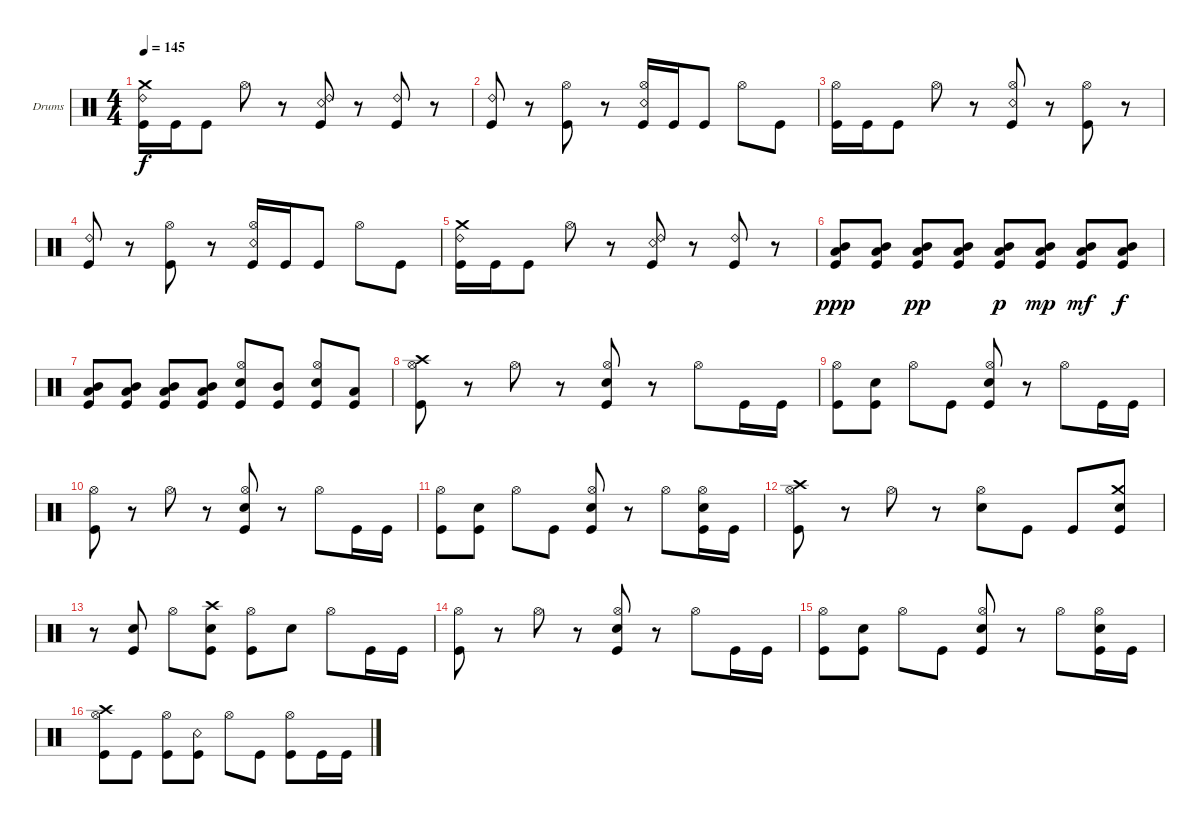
\bracketExtendMode groupsimilarinstruments
\firstSystemTrackNameOrientation horizontal
\otherSystemsTrackNameOrientation horizontal
\track ("Kaleb - Drums" "Drums") {instrument percussion}
\staff {score}
\articulation defaults
\ts (4 4)
\tempo 145
\clef neutral
\ks c
("Kick (hit)" "Ride (bell) 2" "Crash medium (hit)").16{dy f} "Kick (hit)".16 "Kick (hit)".8 "Hi-Hat (open)".8 r.8 ("Kick (hit)" "Ride (bell) 2" "Snare (rim shot)").8 r.8 ("Kick (hit)" "Ride (bell) 2").8 r.8 |
("Kick (hit)" "Ride (bell) 2").8 r.8 ("Kick (hit)" "Hi-Hat (open)").8 r.8 ("Kick (hit)" "Snare (rim shot)" "Hi-Hat (open)").16 "Kick (hit)".16 "Kick (hit)".8 "Hi-Hat (open)".8 "Kick (hit)".8 |
("Kick (hit)" "Hi-Hat (open)").16 "Kick (hit)".16 "Kick (hit)".8 "Hi-Hat (open)".8 r.8 ("Kick (hit)" "Snare (rim shot)" "Hi-Hat (open)").8 r.8 ("Kick (hit)" "Hi-Hat (open)").8 r.8 |
("Kick (hit)" "Ride (bell) 2").8 r.8 ("Kick (hit)" "Hi-Hat (open)").8 r.8 ("Kick (hit)" "Snare (rim shot)" "Hi-Hat (open)").16 "Kick (hit)".16 "Kick (hit)".8 "Hi-Hat (open)".8 "Kick (hit)".8 |
("Kick (hit)" "Ride (bell) 2" "Crash medium (hit)").16 "Kick (hit)".16 "Kick (hit)".8 "Hi-Hat (open)".8 r.8 ("Kick (hit)" "Ride (bell) 2" "Snare (rim shot)").8 r.8 ("Kick (hit)" "Ride (bell) 2").8 r.8 |
("Kick (hit)" "Low Tom (hit)" "Mid Tom (hit)").8{dy ppp} ("Kick (hit)" "Low Tom (hit)" "Mid Tom (hit)").8 ("Kick (hit)" "Low Tom (hit)" "Mid Tom (hit)").8{dy pp} ("Kick (hit)" "Low Tom (hit)" "Mid Tom (hit)").8 ("Kick (hit)" "Low Tom (hit)" "Mid Tom (hit)").8{dy p} ("Kick (hit)" "Low Tom (hit)" "Mid Tom (hit)").8{dy mp} ("Kick (hit)" "Low Tom (hit)" "Mid Tom (hit)").8{dy mf} ("Kick (hit)" "Low Tom (hit)" "Mid Tom (hit)").8{dy f} |
("Kick (hit)" "Low Tom (hit)" "Mid Tom (hit)").8 ("Kick (hit)" "Low Tom (hit)" "Mid Tom (hit)").8 ("Kick (hit)" "Low Tom (hit)" "Mid Tom (hit)").8 ("Kick (hit)" "Low Tom (hit)" "Mid Tom (hit)").8 ("Kick (hit)" "Hi-Hat (open)" "Snare (hit) 2").8 ("Kick (hit)" "Mid Tom (hit)").8 ("Kick (hit)" "Hi-Hat (open)" "Snare (hit) 2").8 ("Kick (hit)" "Low Tom (hit)").8 |
("Kick (hit)" "Hi-Hat (open)" "Crash high (hit)").8 r.8 "Hi-Hat (open)".8 r.8 ("Kick (hit)" "Hi-Hat (open)" "Snare (hit) 2").8 r.8 "Hi-Hat (open)".8 "Kick (hit)".16 "Kick (hit)".16 |
("Kick (hit)" "Hi-Hat (open)").8 ("Kick (hit)" "Snare (hit) 2").8 "Hi-Hat (open)".8 "Kick (hit)".8 ("Kick (hit)" "Hi-Hat (open)" "Snare (hit) 2").8 r.8 "Hi-Hat (open)".8 "Kick (hit)".16 "Kick (hit)".16 |
("Kick (hit)" "Hi-Hat (open)").8 r.8 "Hi-Hat (open)".8 r.8 ("Kick (hit)" "Hi-Hat (open)" "Snare (hit) 2").8 r.8 "Hi-Hat (open)".8 "Kick (hit)".16 "Kick (hit)".16 |
("Kick (hit)" "Hi-Hat (open)").8 ("Kick (hit)" "Snare (hit) 2").8 "Hi-Hat (open)".8 "Kick (hit)".8 ("Kick (hit)" "Hi-Hat (open)" "Snare (hit) 2").8 r.8 "Hi-Hat (open)".8 ("Kick (hit)" "Hi-Hat (open)" "Snare (hit) 2").16 "Kick (hit)".16 |
("Kick (hit)" "Hi-Hat (open)" "Crash high (hit)").8 r.8 "Hi-Hat (open)".8 r.8 ("Snare (hit) 2" "Hi-Hat (open)").8 "Kick (hit)".8 "Kick (hit)".8 ("Snare (hit) 2" "Kick (hit)" "Crash medium (hit)").8 |
r.8 ("Kick (hit)" "Snare (hit) 2").8 "Hi-Hat (open)".8 ("Kick (hit)" "Snare (hit) 2" "Crash high (hit)").8 ("Kick (hit)" "Hi-Hat (open)").8 "Snare (hit) 2".8 "Hi-Hat (open)".8 "Kick (hit)".16 "Kick (hit)".16 |
("Kick (hit)" "Hi-Hat (open)").8 r.8 "Hi-Hat (open)".8 r.8 ("Kick (hit)" "Hi-Hat (open)" "Snare (hit) 2").8 r.8 "Hi-Hat (open)".8 "Kick (hit)".16 "Kick (hit)".16 |
("Kick (hit)" "Hi-Hat (open)").8 ("Kick (hit)" "Snare (hit) 2").8 "Hi-Hat (open)".8 "Kick (hit)".8 ("Kick (hit)" "Hi-Hat (open)" "Snare (hit) 2").8 r.8 "Hi-Hat (open)".8 ("Kick (hit)" "Hi-Hat (open)" "Snare (hit) 2").16 "Kick (hit)".16 |
("Kick (hit)" "Hi-Hat (open)" "Crash high (hit)").8 "Kick (hit)".8 ("Hi-Hat (open)" "Kick (hit)").8 ("Kick (hit)" "Snare (rim shot)").8 "Hi-Hat (open)".8 "Kick (hit)".8 ("Hi-Hat (open)" "Kick (hit)").8 "Kick (hit)".16 "Kick (hit)".16
